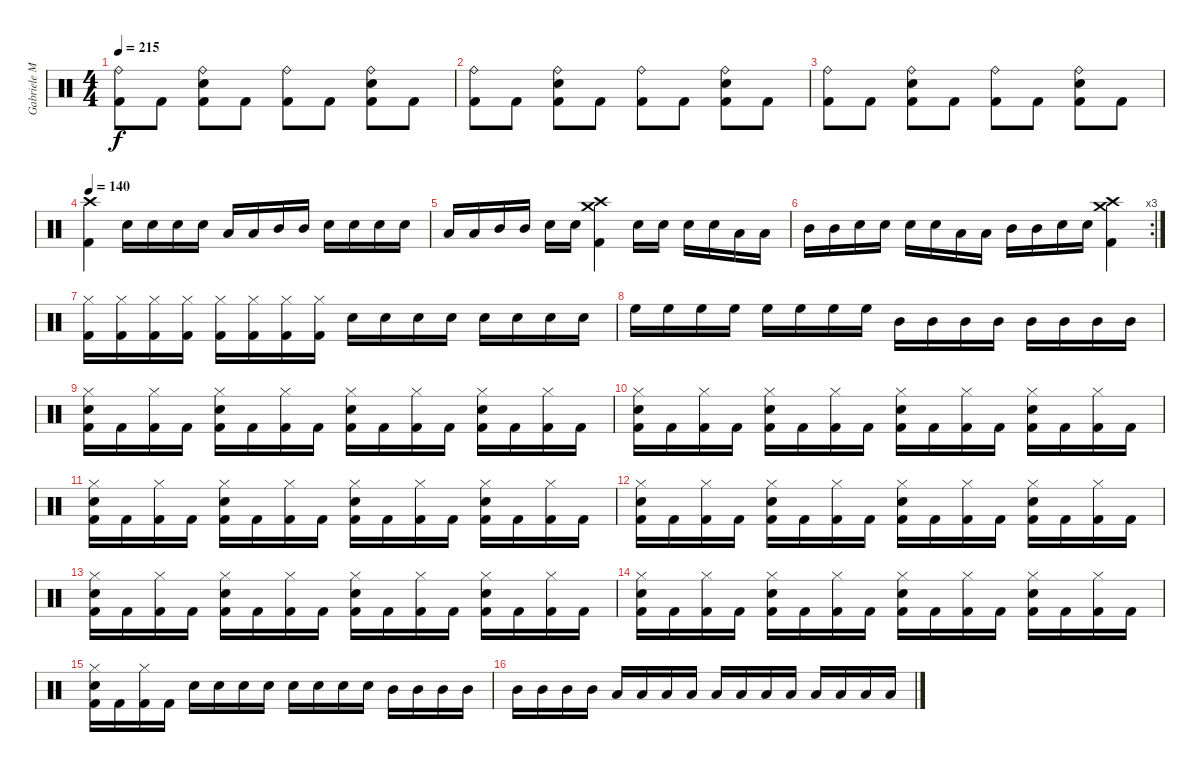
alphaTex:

\track ("Gabriele Malatesta" "Gabriele M") {instrument percussion}
\staff {score}
\articulation defaults
\ts (4 4)
\tempo 215
\clef neutral
\ks c
("Ride (bell)" "Kick (hit) 2").8{dy f} "Kick (hit) 2".8 ("Ride (bell)" "Electric Snare (hit)" "Kick (hit) 2").8 "Kick (hit) 2".8 ("Ride (bell)" "Kick (hit) 2").8 "Kick (hit) 2".8 ("Ride (bell)" "Electric Snare (hit)" "Kick (hit) 2").8 "Kick (hit) 2".8 |
("Ride (bell)" "Kick (hit) 2").8 "Kick (hit) 2".8 ("Ride (bell)" "Electric Snare (hit)" "Kick (hit) 2").8 "Kick (hit) 2".8 ("Ride (bell)" "Kick (hit) 2").8 "Kick (hit) 2".8 ("Ride (bell)" "Electric Snare (hit)" "Kick (hit) 2").8 "Kick (hit) 2".8 |
("Ride (bell)" "Kick (hit) 2").8 "Kick (hit) 2".8 ("Ride (bell)" "Electric Snare (hit)" "Kick (hit) 2").8 "Kick (hit) 2".8 ("Ride (bell)" "Kick (hit) 2").8 "Kick (hit) 2".8 ("Ride (bell)" "Electric Snare (hit)" "Kick (hit) 2").8 "Kick (hit) 2".8 |
\tempo 140
("Crash high (hit)" "Kick (hit) 2").4 "Electric Snare (hit)".16 "Electric Snare (hit)".16 "Electric Snare (hit)".16 "Electric Snare (hit)".16 "Low Tom (hit)".16 "Low Tom (hit)".16 "Mid Tom (hit)".16 "Mid Tom (hit)".16 "Electric Snare (hit)".16 "Electric Snare (hit)".16 "Electric Snare (hit)".16 "Electric Snare (hit)".16 |
"Low Tom (hit)".16 "Low Tom (hit)".16 "Mid Tom (hit)".16 "Mid Tom (hit)".16 "Electric Snare (hit)".16 "Electric Snare (hit)".16 ("Crash medium (hit)" "Crash high (hit)" "Kick (hit) 2").4 "Electric Snare (hit)".16 "Electric Snare (hit)".16 "Electric Snare (hit)".16 "Electric Snare (hit)".16 "Low Tom (hit)".16 "Low Tom (hit)".16 |
\rc 3 "Mid Tom (hit)".16 "Mid Tom (hit)".16 "Electric Snare (hit)".16 "Electric Snare (hit)".16 "Electric Snare (hit)".16 "Electric Snare (hit)".16 "Low Tom (hit)".16 "Low Tom (hit)".16 "Mid Tom (hit)".16 "Mid Tom (hit)".16 "Electric Snare (hit)".16 "Electric Snare (hit)".16
("Crash medium (hit)" "Crash high (hit)" "Kick (hit) 2").4 |
("Hi-Hat (closed)" "Kick (hit) 2").16 ("Hi-Hat (closed)" "Kick (hit) 2").16 ("Hi-Hat (closed)" "Kick (hit) 2").16 ("Hi-Hat (closed)" "Kick (hit) 2").16 ("Hi-Hat (closed)" "Kick (hit) 2").16 ("Hi-Hat (closed)" "Kick (hit) 2").16 ("Hi-Hat (closed)" "Kick (hit) 2").16 ("Hi-Hat (closed)" "Kick (hit) 2").16 "Electric Snare (hit)".16 "Electric Snare (hit)".16 "Electric Snare (hit)".16 "Electric Snare (hit)".16 "Electric Snare (hit)".16 "Electric Snare (hit)".16 "Electric Snare (hit)".16 "Electric Snare (hit)".16 |
"High Floor Tom (hit)".16 "High Floor Tom (hit)".16 "High Floor Tom (hit)".16 "High Floor Tom (hit)".16 "High Floor Tom (hit)".16 "High Floor Tom (hit)".16 "High Floor Tom (hit)".16 "High Floor Tom (hit)".16 "Mid Tom (hit)".16 "Mid Tom (hit)".16 "Mid Tom (hit)".16 "Mid Tom (hit)".16 "Mid Tom (hit)".16 "Mid Tom (hit)".16 "Mid Tom (hit)".16 "Mid Tom (hit)".16 |
("Hi-Hat (closed)" "Electric Snare (hit)" "Kick (hit) 2").16 "Kick (hit) 2".16 ("Hi-Hat (closed)" "Kick (hit) 2").16 "Kick (hit) 2".16 ("Hi-Hat (closed)" "Electric Snare (hit)" "Kick (hit) 2").16 "Kick (hit) 2".16 ("Hi-Hat (closed)" "Kick (hit) 2").16 "Kick (hit) 2".16 ("Hi-Hat (closed)" "Electric Snare (hit)" "Kick (hit) 2").16 "Kick (hit) 2".16 ("Hi-Hat (closed)" "Kick (hit) 2").16 "Kick (hit) 2".16 ("Hi-Hat (closed)" "Electric Snare (hit)" "Kick (hit) 2").16 "Kick (hit) 2".16 ("Hi-Hat (closed)" "Kick (hit) 2").16 "Kick (hit) 2".16 |
("Hi-Hat (closed)" "Electric Snare (hit)" "Kick (hit) 2").16 "Kick (hit) 2".16 ("Hi-Hat (closed)" "Kick (hit) 2").16 "Kick (hit) 2".16 ("Hi-Hat (closed)" "Electric Snare (hit)" "Kick (hit) 2").16 "Kick (hit) 2".16 ("Hi-Hat (closed)" "Kick (hit) 2").16 "Kick (hit) 2".16 ("Hi-Hat (closed)" "Electric Snare (hit)" "Kick (hit) 2").16 "Kick (hit) 2".16 ("Hi-Hat (closed)" "Kick (hit) 2").16 "Kick (hit) 2".16 ("Hi-Hat (closed)" "Electric Snare (hit)" "Kick (hit) 2").16 "Kick (hit) 2".16 ("Hi-Hat (closed)" "Kick (hit) 2").16 "Kick (hit) 2".16 |
("Hi-Hat (closed)" "Electric Snare (hit)" "Kick (hit) 2").16 "Kick (hit) 2".16 ("Hi-Hat (closed)" "Kick (hit) 2").16 "Kick (hit) 2".16 ("Hi-Hat (closed)" "Electric Snare (hit)" "Kick (hit) 2").16 "Kick (hit) 2".16 ("Hi-Hat (closed)" "Kick (hit) 2").16 "Kick (hit) 2".16 ("Hi-Hat (closed)" "Electric Snare (hit)" "Kick (hit) 2").16 "Kick (hit) 2".16 ("Hi-Hat (closed)" "Kick (hit) 2").16 "Kick (hit) 2".16 ("Hi-Hat (closed)" "Electric Snare (hit)" "Kick (hit) 2").16 "Kick (hit) 2".16 ("Hi-Hat (closed)" "Kick (hit) 2").16 "Kick (hit) 2".16 |
("Hi-Hat (closed)" "Electric Snare (hit)" "Kick (hit) 2").16 "Kick (hit) 2".16 ("Hi-Hat (closed)" "Kick (hit) 2").16 "Kick (hit) 2".16 ("Hi-Hat (closed)" "Electric Snare (hit)" "Kick (hit) 2").16 "Kick (hit) 2".16 ("Hi-Hat (closed)" "Kick (hit) 2").16 "Kick (hit) 2".16 ("Hi-Hat (closed)" "Electric Snare (hit)" "Kick (hit) 2").16 "Kick (hit) 2".16 ("Hi-Hat (closed)" "Kick (hit) 2").16 "Kick (hit) 2".16 ("Hi-Hat (closed)" "Electric Snare (hit)" "Kick (hit) 2").16 "Kick (hit) 2".16 ("Hi-Hat (closed)" "Kick (hit) 2").16 "Kick (hit) 2".16 |
("Hi-Hat (closed)" "Electric Snare (hit)" "Kick (hit) 2").16 "Kick (hit) 2".16 ("Hi-Hat (closed)" "Kick (hit) 2").16 "Kick (hit) 2".16 ("Hi-Hat (closed)" "Electric Snare (hit)" "Kick (hit) 2").16 "Kick (hit) 2".16 ("Hi-Hat (closed)" "Kick (hit) 2").16 "Kick (hit) 2".16 ("Hi-Hat (closed)" "Electric Snare (hit)" "Kick (hit) 2").16 "Kick (hit) 2".16 ("Hi-Hat (closed)" "Kick (hit) 2").16 "Kick (hit) 2".16 ("Hi-Hat (closed)" "Electric Snare (hit)" "Kick (hit) 2").16 "Kick (hit) 2".16 ("Hi-Hat (closed)" "Kick (hit) 2").16 "Kick (hit) 2".16 |
("Hi-Hat (closed)" "Electric Snare (hit)" "Kick (hit) 2").16 "Kick (hit) 2".16 ("Hi-Hat (closed)" "Kick (hit) 2").16 "Kick (hit) 2".16 ("Hi-Hat (closed)" "Electric Snare (hit)" "Kick (hit) 2").16 "Kick (hit) 2".16 ("Hi-Hat (closed)" "Kick (hit) 2").16 "Kick (hit) 2".16 ("Hi-Hat (closed)" "Electric Snare (hit)" "Kick (hit) 2").16 "Kick (hit) 2".16 ("Hi-Hat (closed)" "Kick (hit) 2").16 "Kick (hit) 2".16 ("Hi-Hat (closed)" "Electric Snare (hit)" "Kick (hit) 2").16 "Kick (hit) 2".16 ("Hi-Hat (closed)" "Kick (hit) 2").16 "Kick (hit) 2".16 |
("Hi-Hat (closed)" "Electric Snare (hit)" "Kick (hit) 2").16 "Kick (hit) 2".16 ("Hi-Hat (closed)" "Kick (hit) 2").16 "Kick (hit) 2".16 "Electric Snare (hit)".16 "Electric Snare (hit)".16 "Electric Snare (hit)".16 "Electric Snare (hit)".16 "Electric Snare (hit)".16 "Electric Snare (hit)".16 "Electric Snare (hit)".16 "Electric Snare (hit)".16 "Mid Tom (hit)".16 "Mid Tom (hit)".16 "Mid Tom (hit)".16 "Mid Tom (hit)".16 |
"Mid Tom (hit)".16 "Mid Tom (hit)".16 "Mid Tom (hit)".16 "Mid Tom (hit)".16 "Low Tom (hit)".16 "Low Tom (hit)".16 "Low Tom (hit)".16 "Low Tom (hit)".16 "Low Tom (hit)".16 "Low Tom (hit)".16 "Low Tom (hit)".16 "Low Tom (hit)".16 "Low Tom (hit)".16 "Low Tom (hit)".16 "Low Tom (hit)".16 "Low Tom (hit)".16
